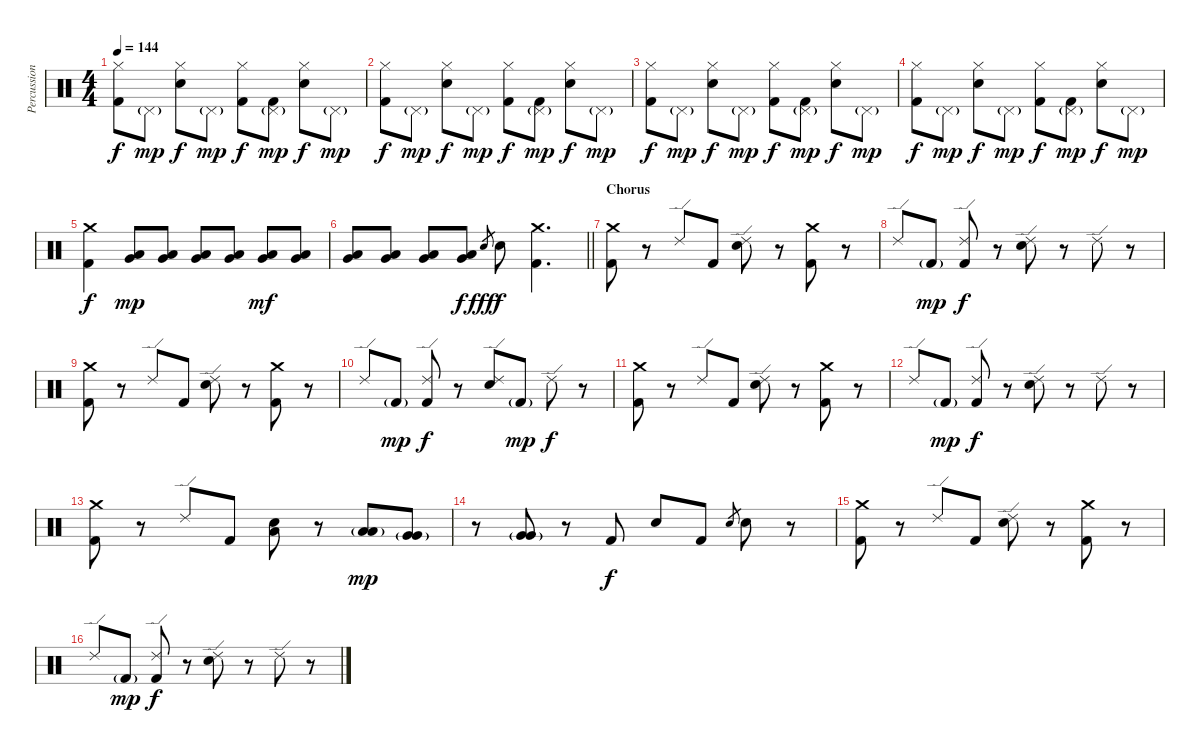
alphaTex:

\track ("Percussion" "Percussion") {instrument percussion}
\staff {score}
\articulation defaults
\ts (4 4)
\tempo 144
\clef neutral
\ks c
("Hi-Hat (closed)" "Kick (hit) 2").8{dy f} "Pedal Hi-Hat (hit)"{g}.8{dy mp} ("Hi-Hat (closed)" "Electric Snare (hit)").8{dy f} "Pedal Hi-Hat (hit)"{g}.8{dy mp} ("Hi-Hat (closed)" "Kick (hit) 2").8{dy f} ("Pedal Hi-Hat (hit)"{g} "Kick (hit) 2").8{dy mp} ("Hi-Hat (closed)" "Electric Snare (hit)").8{dy f} "Pedal Hi-Hat (hit)"{g}.8{dy mp} |
("Hi-Hat (closed)" "Kick (hit) 2").8{dy f} "Pedal Hi-Hat (hit)"{g}.8{dy mp} ("Hi-Hat (closed)" "Electric Snare (hit)").8{dy f} "Pedal Hi-Hat (hit)"{g}.8{dy mp} ("Hi-Hat (closed)" "Kick (hit) 2").8{dy f} ("Pedal Hi-Hat (hit)"{g} "Kick (hit) 2").8{dy mp} ("Hi-Hat (closed)" "Electric Snare (hit)").8{dy f} "Pedal Hi-Hat (hit)"{g}.8{dy mp} |
("Hi-Hat (closed)" "Kick (hit) 2").8{dy f} "Pedal Hi-Hat (hit)"{g}.8{dy mp} ("Hi-Hat (closed)" "Electric Snare (hit)").8{dy f} "Pedal Hi-Hat (hit)"{g}.8{dy mp} ("Hi-Hat (closed)" "Kick (hit) 2").8{dy f} ("Pedal Hi-Hat (hit)"{g} "Kick (hit) 2").8{dy mp} ("Hi-Hat (closed)" "Electric Snare (hit)").8{dy f} "Pedal Hi-Hat (hit)"{g}.8{dy mp} |
("Hi-Hat (closed)" "Kick (hit) 2").8{dy f} "Pedal Hi-Hat (hit)"{g}.8{dy mp} ("Hi-Hat (closed)" "Electric Snare (hit)").8{dy f} "Pedal Hi-Hat (hit)"{g}.8{dy mp} ("Hi-Hat (closed)" "Kick (hit) 2").8{dy f} ("Pedal Hi-Hat (hit)"{g} "Kick (hit) 2").8{dy mp} ("Hi-Hat (closed)" "Electric Snare (hit)").8{dy f} "Pedal Hi-Hat (hit)"{g}.8{dy mp} |
("Crash medium (hit)" "Kick (hit) 2").4{dy f} ("Low Tom (hit)" "Very Low Tom (hit)").8{dy mp} ("Low Tom (hit)" "Very Low Tom (hit)").8 ("Low Tom (hit)" "Very Low Tom (hit)").8 ("Low Tom (hit)" "Very Low Tom (hit)").8 ("Low Tom (hit)" "Very Low Tom (hit)").8{dy mf} ("Low Tom (hit)" "Very Low Tom (hit)").8 |
\barLineRight lightlight
("Low Tom (hit)" "Very Low Tom (hit)").8 ("Low Tom (hit)" "Very Low Tom (hit)").8 ("Low Tom (hit)" "Very Low Tom (hit)").8 ("Low Tom (hit)" "Very Low Tom (hit)").8{dy f} "Electric Snare (hit)".8{gr dy fff} "Electric Snare (hit)".8{dy f} ("Crash medium (hit)" "Kick (hit) 2").4{d} |
\section ("" "Chorus")
("Crash medium (hit)" "Kick (hit) 2").8 r.8 "Ride (edge) 2".8 "Kick (hit) 2".8 ("Ride (edge) 2" "Electric Snare (hit)").8 r.8 ("Crash medium (hit)" "Kick (hit) 2").8 r.8 |
"Ride (edge) 2".8 "Kick (hit) 2"{g}.8{dy mp} ("Ride (edge) 2" "Kick (hit) 2").8{dy f} r.8 ("Ride (edge) 2" "Electric Snare (hit)").8 r.8 "Ride (edge) 2".8 r.8 |
("Crash medium (hit)" "Kick (hit) 2").8 r.8 "Ride (edge) 2".8 "Kick (hit) 2".8 ("Ride (edge) 2" "Electric Snare (hit)").8 r.8 ("Crash medium (hit)" "Kick (hit) 2").8 r.8 |
"Ride (edge) 2".8 "Kick (hit) 2"{g}.8{dy mp} ("Ride (edge) 2" "Kick (hit) 2").8{dy f} r.8 ("Ride (edge) 2" "Electric Snare (hit)").8 "Kick (hit) 2"{g}.8{dy mp} "Ride (edge) 2".8{dy f} r.8 |
("Crash medium (hit)" "Kick (hit) 2").8 r.8 "Ride (edge) 2".8 "Kick (hit) 2".8 ("Ride (edge) 2" "Electric Snare (hit)").8 r.8 ("Crash medium (hit)" "Kick (hit) 2").8 r.8 |
"Ride (edge) 2".8 "Kick (hit) 2"{g}.8{dy mp} ("Ride (edge) 2" "Kick (hit) 2").8{dy f} r.8 ("Ride (edge) 2" "Electric Snare (hit)").8 r.8 "Ride (edge) 2".8 r.8 |
("Crash medium (hit)" "Kick (hit) 2").8 r.8 "Ride (edge) 2".8 "Kick (hit) 2".8 ("Low Floor Tom (hit)" "Electric Snare (hit)").8 r.8 ("Low Tom (hit)"{g} "Low Tom (hit)").8{dy mp} ("Very Low Tom (hit)"{g} "Very Low Tom (hit)").8 |
r.8 ("Very Low Tom (hit)"{g} "Very Low Tom (hit)").8 r.8 "Kick (hit) 2".8{dy f} "Electric Snare (hit)".8 "Kick (hit) 2".8 "Electric Snare (hit)".8{gr} "Electric Snare (hit)".8 r.8 |
("Crash medium (hit)" "Kick (hit) 2").8 r.8 "Ride (edge) 2".8 "Kick (hit) 2".8 ("Ride (edge) 2" "Electric Snare (hit)").8 r.8 ("Crash medium (hit)" "Kick (hit) 2").8 r.8 |
"Ride (edge) 2".8 "Kick (hit) 2"{g}.8{dy mp} ("Ride (edge) 2" "Kick (hit) 2").8{dy f} r.8 ("Ride (edge) 2" "Electric Snare (hit)").8 r.8 "Ride (edge) 2".8 r.8
